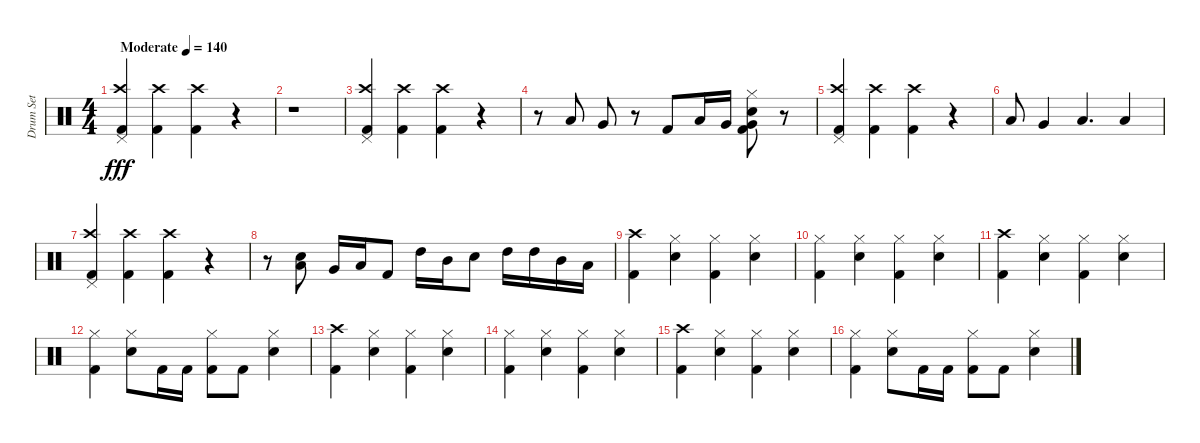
\track ("Drum Set" "Drum Set") {instrument percussion}
\staff {score}
\articulation defaults
\ts (4 4)
\tempo (140 "Moderate")
\clef neutral
\ks c
("Pedal Hi-Hat (hit)" "Crash high (hit)" "Kick (hit) 2").4{dy fff} ("Kick (hit) 2" "Crash high (hit)").4 ("Kick (hit) 2" "Crash high (hit)").4 r.4 |
r.1 |
("Pedal Hi-Hat (hit)" "Kick (hit) 2" "Crash high (hit)").4 ("Kick (hit) 2" "Crash high (hit)").4 ("Kick (hit) 2" "Crash high (hit)").4 r.4 |
r.8 "Low Tom (hit)".8 "Very Low Tom (hit)".8 r.8 "Kick (hit) 2".8 "Low Tom (hit)".16 "Very Low Tom (hit)".16 ("Electric Snare (hit)" "Kick (hit) 2" "Very Low Tom (hit)" "Hi-Hat (closed)").8 r.8 |
("Pedal Hi-Hat (hit)" "Crash high (hit)" "Kick (hit) 2").4 ("Crash high (hit)" "Kick (hit) 2").4 ("Kick (hit) 2" "Crash high (hit)").4 r.4 |
"Low Tom (hit)".8 "Very Low Tom (hit)".4 "Low Floor Tom (hit)".4{d} "Low Tom (hit)".4 |
("Pedal Hi-Hat (hit)" "Kick (hit) 2" "Crash high (hit)").4 ("Crash high (hit)" "Kick (hit) 2").4 ("Kick (hit) 2" "Crash high (hit)").4 r.4 |
r.8 ("Electric Snare (hit)" "Low Tom (hit)").8 "Very Low Tom (hit)".16 "Low Floor Tom (hit)".16 "Kick (hit) 2".8 "High Tom (hit)".16 "Mid Tom (hit)".16 "Electric Snare (hit)".8 "High Tom (hit)".16 "High Tom (hit)".16 "Mid Tom (hit)".16 "Low Tom (hit)".16 |
("Kick (hit) 2" "Crash high (hit)").4 ("Electric Snare (hit)" "Hi-Hat (closed)").4 ("Kick (hit) 2" "Hi-Hat (closed)").4 ("Electric Snare (hit)" "Hi-Hat (closed)").4 |
("Kick (hit) 2" "Hi-Hat (closed)").4 ("Electric Snare (hit)" "Hi-Hat (closed)").4 ("Kick (hit) 2" "Hi-Hat (closed)").4 ("Electric Snare (hit)" "Hi-Hat (closed)").4 |
("Kick (hit) 2" "Crash high (hit)").4 ("Electric Snare (hit)" "Hi-Hat (closed)").4 ("Kick (hit) 2" "Hi-Hat (closed)").4 ("Electric Snare (hit)" "Hi-Hat (closed)").4 |
("Kick (hit) 2" "Hi-Hat (closed)").4 ("Electric Snare (hit)" "Hi-Hat (closed)").8 "Kick (hit) 2".16 "Kick (hit) 2".16 ("Hi-Hat (closed)" "Kick (hit) 2").8 "Kick (hit) 2".8 ("Electric Snare (hit)" "Hi-Hat (closed)").4 |
("Kick (hit) 2" "Crash high (hit)").4 ("Electric Snare (hit)" "Hi-Hat (closed)").4 ("Kick (hit) 2" "Hi-Hat (closed)").4 ("Electric Snare (hit)" "Hi-Hat (closed)").4 |
("Kick (hit) 2" "Hi-Hat (closed)").4 ("Electric Snare (hit)" "Hi-Hat (closed)").4 ("Kick (hit) 2" "Hi-Hat (closed)").4 ("Electric Snare (hit)" "Hi-Hat (closed)").4 |
("Kick (hit) 2" "Crash high (hit)").4 ("Electric Snare (hit)" "Hi-Hat (closed)").4 ("Kick (hit) 2" "Hi-Hat (closed)").4 ("Electric Snare (hit)" "Hi-Hat (closed)").4 |
("Kick (hit) 2" "Hi-Hat (closed)").4 ("Electric Snare (hit)" "Hi-Hat (closed)").8 "Kick (hit) 2".16 "Kick (hit) 2".16 ("Kick (hit) 2" "Hi-Hat (closed)").8 "Kick (hit) 2".8 ("Electric Snare (hit)" "Hi-Hat (closed)").4
